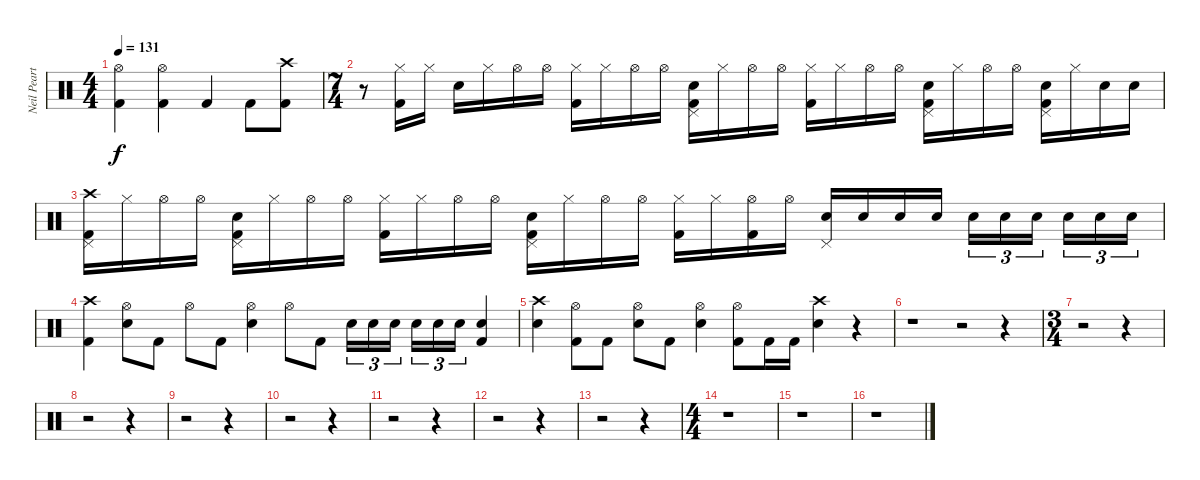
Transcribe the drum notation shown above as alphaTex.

\track ("Neil Peart" "Neil Peart") {instrument percussion}
\staff {score}
\articulation defaults
\ts (4 4)
\tempo 131
\clef neutral
\ks c
("Hi-Hat (open)" "Kick (hit) 2").4{dy f} ("Hi-Hat (open)" "Kick (hit) 2").4 "Kick (hit) 2".4 "Kick (hit) 2".8 ("Crash high (hit)" "Kick (hit) 2").8 |
\ts (7 4)
r.8 ("Hi-Hat (closed)" "Kick (hit) 2").16 "Hi-Hat (closed)".16 "Electric Snare (hit)".16 "Hi-Hat (closed)".16 "Hi-Hat (open)".16 "Hi-Hat (open)".16 ("Hi-Hat (closed)" "Kick (hit) 2").16 "Hi-Hat (closed)".16 "Hi-Hat (open)".16 "Hi-Hat (open)".16 ("Pedal Hi-Hat (hit)" "Electric Snare (hit)" "Kick (hit) 2").16 "Hi-Hat (closed)".16 "Hi-Hat (open)".16 "Hi-Hat (open)".16 ("Hi-Hat (closed)" "Kick (hit) 2").16 "Hi-Hat (closed)".16 "Hi-Hat (open)".16 "Hi-Hat (open)".16 ("Pedal Hi-Hat (hit)" "Electric Snare (hit)" "Kick (hit) 2").16 "Hi-Hat (closed)".16 "Hi-Hat (open)".16 "Hi-Hat (open)".16 ("Pedal Hi-Hat (hit)" "Electric Snare (hit)" "Kick (hit) 2").16 "Hi-Hat (closed)".16 "Electric Snare (hit)".16 "Electric Snare (hit)".16 |
("Crash high (hit)" "Pedal Hi-Hat (hit)" "Kick (hit) 2").16 "Hi-Hat (closed)".16 "Hi-Hat (open)".16 "Hi-Hat (open)".16 ("Pedal Hi-Hat (hit)" "Electric Snare (hit)" "Kick (hit) 2").16 "Hi-Hat (closed)".16 "Hi-Hat (open)".16 "Hi-Hat (open)".16 ("Hi-Hat (closed)" "Kick (hit) 2").16 "Hi-Hat (closed)".16 "Hi-Hat (open)".16 "Hi-Hat (open)".16 ("Pedal Hi-Hat (hit)" "Electric Snare (hit)" "Kick (hit) 2").16 "Hi-Hat (closed)".16 "Hi-Hat (open)".16 "Hi-Hat (open)".16 ("Hi-Hat (closed)" "Kick (hit) 2").16 "Hi-Hat (closed)".16 ("Hi-Hat (open)" "Kick (hit) 2").16 "Hi-Hat (open)".16 ("Pedal Hi-Hat (hit)" "Electric Snare (hit)").16 "Electric Snare (hit)".16 "Electric Snare (hit)".16 "Electric Snare (hit)".16 "Electric Snare (hit)".16{tu (3 2)} "Electric Snare (hit)".16{tu (3 2)} "Electric Snare (hit)".16{tu (3 2)} "Electric Snare (hit)".16{tu (3 2)} "Electric Snare (hit)".16{tu (3 2)} "Electric Snare (hit)".16{tu (3 2)} |
("Crash high (hit)" "Kick (hit) 2").4 ("Hi-Hat (open)" "Electric Snare (hit)").8 "Kick (hit) 2".8 "Hi-Hat (open)".8 "Kick (hit) 2".8 ("Hi-Hat (open)" "Electric Snare (hit)").4 "Hi-Hat (open)".8 "Kick (hit) 2".8 "Electric Snare (hit)".16{tu (3 2)} "Electric Snare (hit)".16{tu (3 2)} "Electric Snare (hit)".16{tu (3 2)} "Electric Snare (hit)".16{tu (3 2)} "Electric Snare (hit)".16{tu (3 2)} "Electric Snare (hit)".16{tu (3 2)} ("Electric Snare (hit)" "Kick (hit) 2").4 |
("Crash high (hit)" "Electric Snare (hit)").4 ("Hi-Hat (open)" "Kick (hit) 2").8 "Kick (hit) 2".8 ("Hi-Hat (open)" "Electric Snare (hit)").8 "Kick (hit) 2".8 ("Hi-Hat (open)" "Electric Snare (hit)").4 ("Hi-Hat (open)" "Kick (hit) 2").8 "Kick (hit) 2".16 "Kick (hit) 2".16 ("Crash high (hit)" "Electric Snare (hit)").4 r.4 |
r.1 r.2 r.4 |
\ts (3 4)
r.2 r.4 |
r.2 r.4 |
r.2 r.4 |
r.2 r.4 |
r.2 r.4 |
r.2 r.4 |
r.2 r.4 |
\ts (4 4)
r.1 |
r.1 |
r.1
